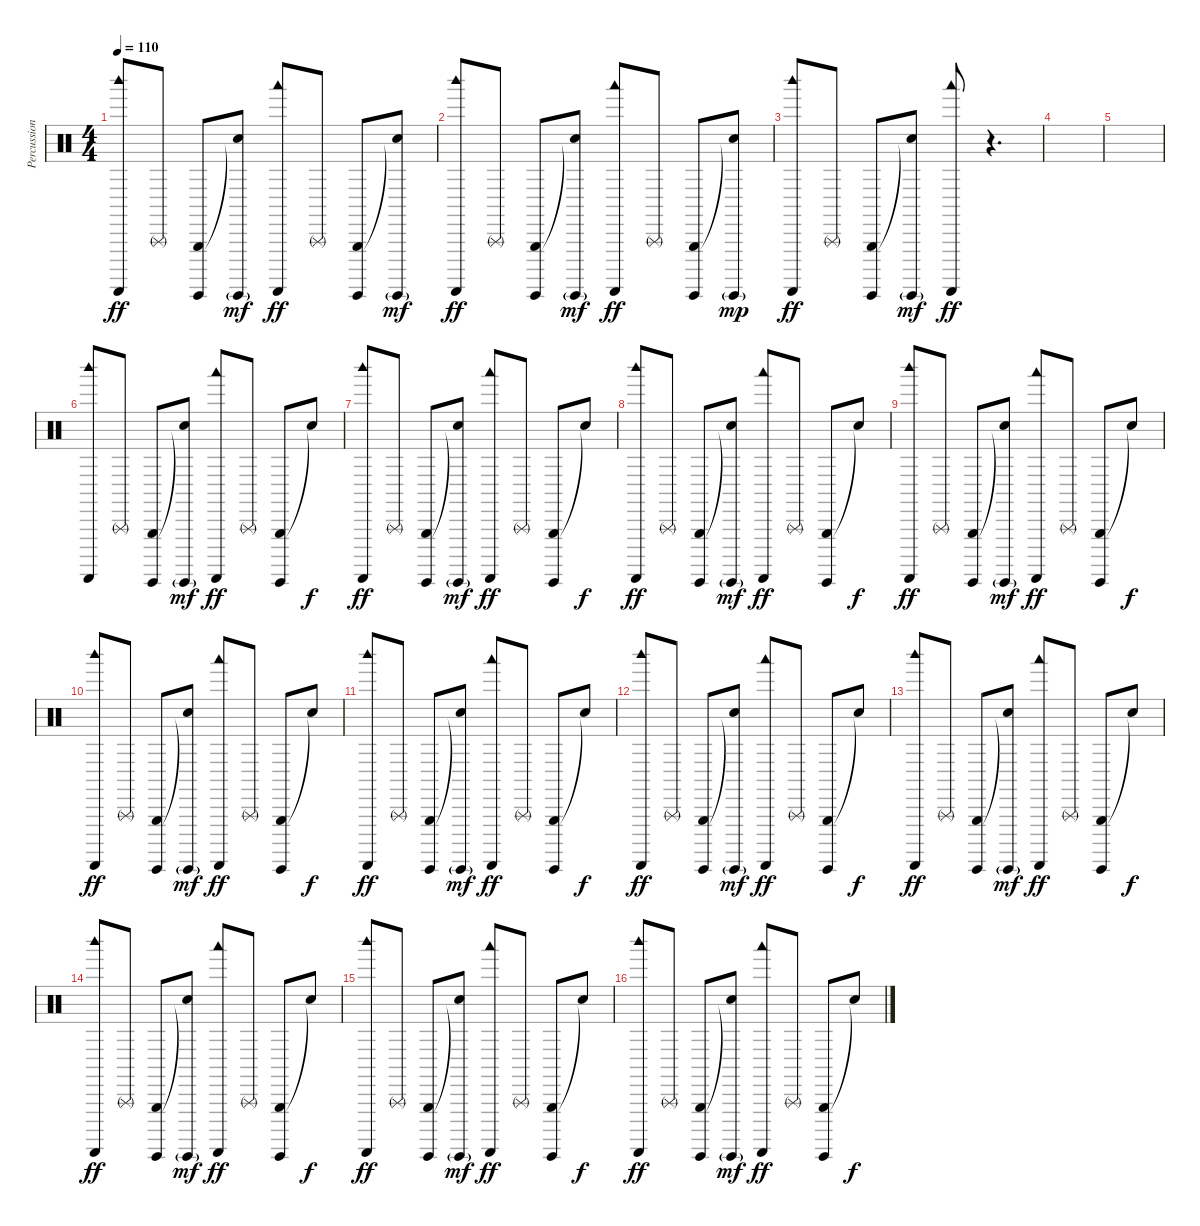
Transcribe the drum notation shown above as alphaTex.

\track ("Percussion" "Percussion") {instrument percussion}
\staff {score}
\articulation defaults
\ts (4 4)
\tempo 110
\clef neutral
\ks c
("Woodblock high (hit)" "Guiro (scrap-return)").8{dy ff} "Triangle (rnute)".8 ("Triangle (hit)" "Guiro (hit)").8 ("Snare (hit)"{t} "Guiro (hit)"{g}).8{dy mf} ("Woodblock low (hit)" "Guiro (scrap-return)").8{dy ff} "Triangle (rnute)".8 ("Triangle (hit)" "Guiro (hit)").8 ("Snare (hit)"{t} "Guiro (hit)"{g}).8{dy mf} |
("Woodblock high (hit)" "Guiro (scrap-return)").8{dy ff} "Triangle (rnute)".8 ("Triangle (hit)" "Guiro (hit)").8 ("Snare (hit)"{t} "Guiro (hit)"{g}).8{dy mf} ("Woodblock low (hit)" "Guiro (scrap-return)").8{dy ff} "Triangle (rnute)".8 ("Triangle (hit)" "Guiro (hit)").8 ("Snare (hit)"{t} "Guiro (hit)"{g}).8{dy mp} |
("Woodblock high (hit)" "Guiro (scrap-return)").8{dy ff} "Triangle (rnute)".8 ("Triangle (hit)" "Guiro (hit)").8 ("Snare (hit)"{t} "Guiro (hit)"{g}).8{dy mf} ("Woodblock low (hit)" "Guiro (scrap-return)").8{dy ff} r.4{d} |
|
|
("Woodblock high (hit)" "Guiro (scrap-return)").8 "Triangle (rnute)".8 ("Triangle (hit)" "Guiro (hit)").8 ("Snare (hit)"{t} "Guiro (hit)"{g}).8{dy mf} ("Woodblock low (hit)" "Guiro (scrap-return)").8{dy ff} "Triangle (rnute)".8 ("Triangle (hit)" "Guiro (hit)").8 "Snare (hit)"{t}.8{dy f} |
("Woodblock high (hit)" "Guiro (scrap-return)").8{dy ff} "Triangle (rnute)".8 ("Triangle (hit)" "Guiro (hit)").8 ("Snare (hit)"{t} "Guiro (hit)"{g}).8{dy mf} ("Woodblock low (hit)" "Guiro (scrap-return)").8{dy ff} "Triangle (rnute)".8 ("Triangle (hit)" "Guiro (hit)").8 "Snare (hit)"{t}.8{dy f} |
("Woodblock high (hit)" "Guiro (scrap-return)").8{dy ff} "Triangle (rnute)".8 ("Triangle (hit)" "Guiro (hit)").8 ("Snare (hit)"{t} "Guiro (hit)"{g}).8{dy mf} ("Woodblock low (hit)" "Guiro (scrap-return)").8{dy ff} "Triangle (rnute)".8 ("Triangle (hit)" "Guiro (hit)").8 "Snare (hit)"{t}.8{dy f} |
("Woodblock high (hit)" "Guiro (scrap-return)").8{dy ff} "Triangle (rnute)".8 ("Triangle (hit)" "Guiro (hit)").8 ("Snare (hit)"{t} "Guiro (hit)"{g}).8{dy mf} ("Woodblock low (hit)" "Guiro (scrap-return)").8{dy ff} "Triangle (rnute)".8 ("Triangle (hit)" "Guiro (hit)").8 "Snare (hit)"{t}.8{dy f} |
("Woodblock high (hit)" "Guiro (scrap-return)").8{dy ff} "Triangle (rnute)".8 ("Triangle (hit)" "Guiro (hit)").8 ("Snare (hit)"{t} "Guiro (hit)"{g}).8{dy mf} ("Woodblock low (hit)" "Guiro (scrap-return)").8{dy ff} "Triangle (rnute)".8 ("Triangle (hit)" "Guiro (hit)").8 "Snare (hit)"{t}.8{dy f} |
("Woodblock high (hit)" "Guiro (scrap-return)").8{dy ff} "Triangle (rnute)".8 ("Triangle (hit)" "Guiro (hit)").8 ("Snare (hit)"{t} "Guiro (hit)"{g}).8{dy mf} ("Woodblock low (hit)" "Guiro (scrap-return)").8{dy ff} "Triangle (rnute)".8 ("Triangle (hit)" "Guiro (hit)").8 "Snare (hit)"{t}.8{dy f} |
("Woodblock high (hit)" "Guiro (scrap-return)").8{dy ff} "Triangle (rnute)".8 ("Triangle (hit)" "Guiro (hit)").8 ("Snare (hit)"{t} "Guiro (hit)"{g}).8{dy mf} ("Woodblock low (hit)" "Guiro (scrap-return)").8{dy ff} "Triangle (rnute)".8 ("Triangle (hit)" "Guiro (hit)").8 "Snare (hit)"{t}.8{dy f} |
("Woodblock high (hit)" "Guiro (scrap-return)").8{dy ff} "Triangle (rnute)".8 ("Triangle (hit)" "Guiro (hit)").8 ("Snare (hit)"{t} "Guiro (hit)"{g}).8{dy mf} ("Woodblock low (hit)" "Guiro (scrap-return)").8{dy ff} "Triangle (rnute)".8 ("Triangle (hit)" "Guiro (hit)").8 "Snare (hit)"{t}.8{dy f} |
("Woodblock high (hit)" "Guiro (scrap-return)").8{dy ff} "Triangle (rnute)".8 ("Triangle (hit)" "Guiro (hit)").8 ("Snare (hit)"{t} "Guiro (hit)"{g}).8{dy mf} ("Woodblock low (hit)" "Guiro (scrap-return)").8{dy ff} "Triangle (rnute)".8 ("Triangle (hit)" "Guiro (hit)").8 "Snare (hit)"{t}.8{dy f} |
("Woodblock high (hit)" "Guiro (scrap-return)").8{dy ff} "Triangle (rnute)".8 ("Triangle (hit)" "Guiro (hit)").8 ("Snare (hit)"{t} "Guiro (hit)"{g}).8{dy mf} ("Woodblock low (hit)" "Guiro (scrap-return)").8{dy ff} "Triangle (rnute)".8 ("Triangle (hit)" "Guiro (hit)").8 "Snare (hit)"{t}.8{dy f} |
("Woodblock high (hit)" "Guiro (scrap-return)").8{dy ff} "Triangle (rnute)".8 ("Triangle (hit)" "Guiro (hit)").8 ("Snare (hit)"{t} "Guiro (hit)"{g}).8{dy mf} ("Woodblock low (hit)" "Guiro (scrap-return)").8{dy ff} "Triangle (rnute)".8 ("Triangle (hit)" "Guiro (hit)").8 "Snare (hit)"{t}.8{dy f}
